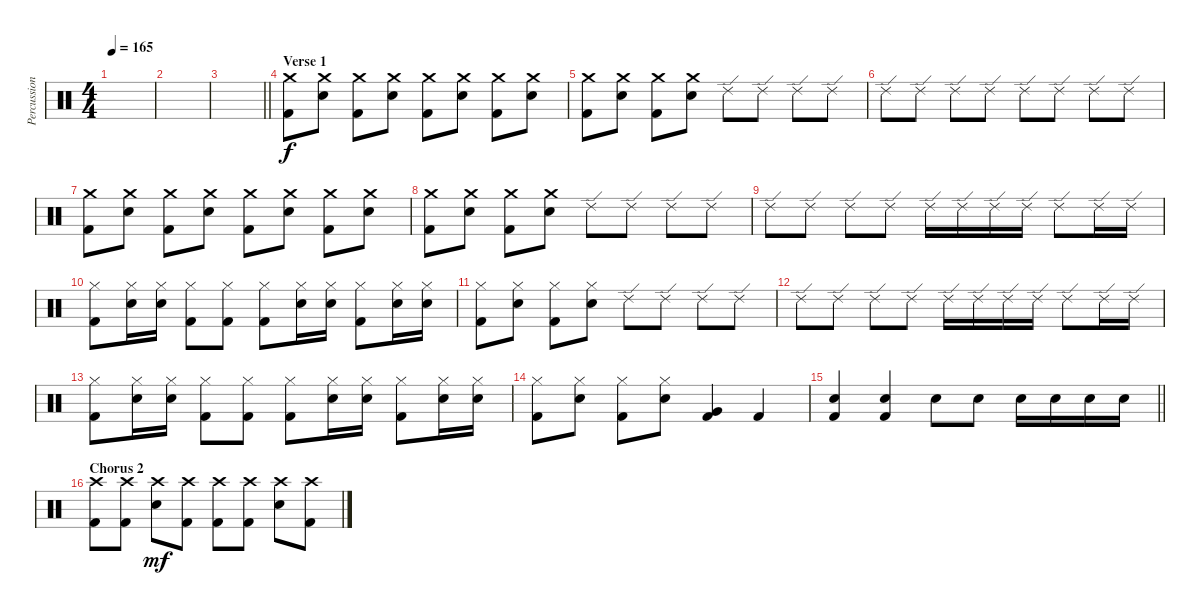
\track ("Percussion" "Percussion") {instrument percussion}
\staff {score}
\articulation defaults
\ts (4 4)
\tempo 165
\clef neutral
\ks c
|
|
\barLineRight lightlight
|
\section ("" "Verse 1")
("Crash medium (hit)" "Kick (hit) 2").8 ("Crash medium (hit)" "Snare (hit) 2").8 ("Crash medium (hit)" "Kick (hit) 2").8 ("Crash medium (hit)" "Snare (hit) 2").8 ("Crash medium (hit)" "Kick (hit) 2").8 ("Crash medium (hit)" "Snare (hit) 2").8 ("Crash medium (hit)" "Kick (hit) 2").8 ("Crash medium (hit)" "Snare (hit) 2").8 |
("Crash medium (hit)" "Kick (hit) 2").8 ("Crash medium (hit)" "Snare (hit) 2").8 ("Crash medium (hit)" "Kick (hit) 2").8 ("Crash medium (hit)" "Snare (hit) 2").8 "Ride (edge) 2".8 "Ride (edge) 2".8 "Ride (edge) 2".8 "Ride (edge) 2".8 |
"Ride (edge) 2".8 "Ride (edge) 2".8 "Ride (edge) 2".8 "Ride (edge) 2".8 "Ride (edge) 2".8 "Ride (edge) 2".8 "Ride (edge) 2".8 "Ride (edge) 2".8 |
("Crash medium (hit)" "Kick (hit) 2").8 ("Crash medium (hit)" "Snare (hit) 2").8 ("Crash medium (hit)" "Kick (hit) 2").8 ("Crash medium (hit)" "Snare (hit) 2").8 ("Crash medium (hit)" "Kick (hit) 2").8 ("Crash medium (hit)" "Snare (hit) 2").8 ("Crash medium (hit)" "Kick (hit) 2").8 ("Crash medium (hit)" "Snare (hit) 2").8 |
("Crash medium (hit)" "Kick (hit) 2").8 ("Crash medium (hit)" "Snare (hit) 2").8 ("Crash medium (hit)" "Kick (hit) 2").8 ("Crash medium (hit)" "Snare (hit) 2").8 "Ride (edge) 2".8 "Ride (edge) 2".8 "Ride (edge) 2".8 "Ride (edge) 2".8 |
"Ride (edge) 2".8 "Ride (edge) 2".8 "Ride (edge) 2".8 "Ride (edge) 2".8 "Ride (edge) 2".16 "Ride (edge) 2".16 "Ride (edge) 2".16 "Ride (edge) 2".16 "Ride (edge) 2".8 "Ride (edge) 2".16 "Ride (edge) 2".16 |
("Hi-Hat (closed)" "Kick (hit) 2").8 ("Hi-Hat (closed)" "Snare (hit) 2").16 ("Hi-Hat (closed)" "Snare (hit) 2").16 ("Hi-Hat (closed)" "Kick (hit) 2").8 ("Hi-Hat (closed)" "Kick (hit) 2").8 ("Hi-Hat (closed)" "Kick (hit) 2").8 ("Hi-Hat (closed)" "Snare (hit) 2").16 ("Hi-Hat (closed)" "Snare (hit) 2").16 ("Hi-Hat (closed)" "Kick (hit) 2").8 ("Hi-Hat (closed)" "Snare (hit) 2").16 ("Hi-Hat (closed)" "Snare (hit) 2").16 |
("Hi-Hat (closed)" "Kick (hit) 2").8 ("Hi-Hat (closed)" "Snare (hit) 2").8 ("Hi-Hat (closed)" "Kick (hit) 2").8 ("Hi-Hat (closed)" "Snare (hit) 2").8 "Ride (edge) 2".8 "Ride (edge) 2".8 "Ride (edge) 2".8 "Ride (edge) 2".8 |
"Ride (edge) 2".8 "Ride (edge) 2".8 "Ride (edge) 2".8 "Ride (edge) 2".8 "Ride (edge) 2".16 "Ride (edge) 2".16 "Ride (edge) 2".16 "Ride (edge) 2".16 "Ride (edge) 2".8 "Ride (edge) 2".16 "Ride (edge) 2".16 |
("Hi-Hat (closed)" "Kick (hit) 2").8 ("Hi-Hat (closed)" "Snare (hit) 2").16 ("Hi-Hat (closed)" "Snare (hit) 2").16 ("Hi-Hat (closed)" "Kick (hit) 2").8 ("Hi-Hat (closed)" "Kick (hit) 2").8 ("Hi-Hat (closed)" "Kick (hit) 2").8 ("Hi-Hat (closed)" "Snare (hit) 2").16 ("Hi-Hat (closed)" "Snare (hit) 2").16 ("Hi-Hat (closed)" "Kick (hit) 2").8 ("Hi-Hat (closed)" "Snare (hit) 2").16 ("Hi-Hat (closed)" "Snare (hit) 2").16 |
("Hi-Hat (closed)" "Kick (hit) 2").8 ("Hi-Hat (closed)" "Snare (hit) 2").8 ("Hi-Hat (closed)" "Kick (hit) 2").8 ("Hi-Hat (closed)" "Snare (hit) 2").8 ("Very Low Tom (hit)" "Kick (hit) 2").4 "Kick (hit) 2".4 |
\barLineRight lightlight
("Snare (hit) 2" "Kick (hit) 2").4 ("Snare (hit) 2" "Kick (hit) 2").4 "Snare (hit) 2".8 "Snare (hit) 2".8 "Snare (hit) 2".16 "Snare (hit) 2".16 "Snare (hit) 2".16 "Snare (hit) 2".16 |
\section ("" "Chorus 2")
("Crash high (hit)" "Kick (hit) 2").8{dy f} ("Crash high (hit)" "Kick (hit) 2").8 ("Crash high (hit)" "Snare (hit) 2").8{dy mf} ("Crash high (hit)" "Kick (hit) 2").8 ("Crash high (hit)" "Kick (hit) 2").8 ("Crash high (hit)" "Kick (hit) 2").8 ("Crash high (hit)" "Snare (hit) 2").8 ("Crash high (hit)" "Kick (hit) 2").8
